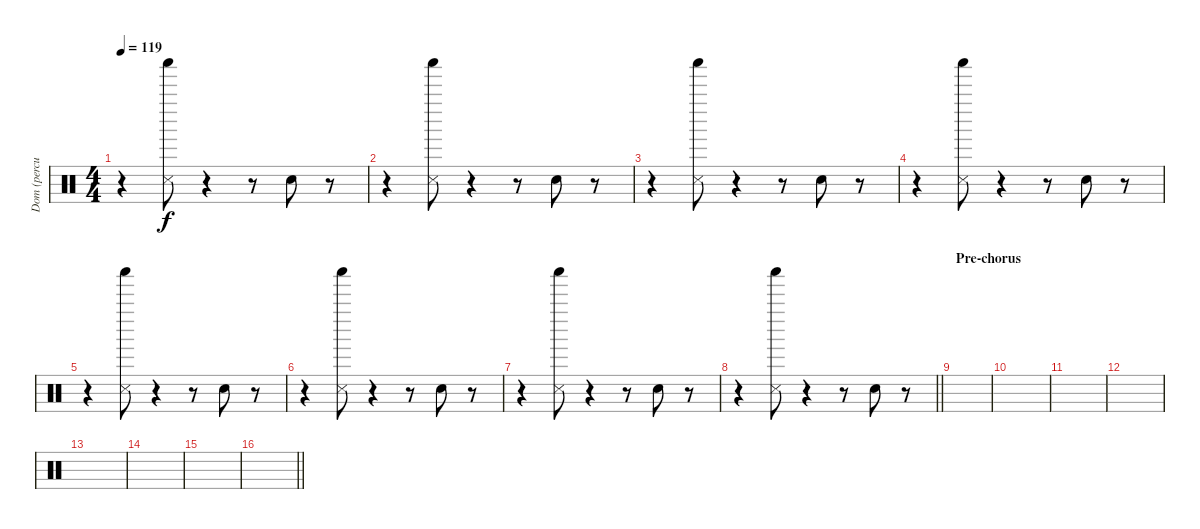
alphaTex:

\track ("Dom (percussions)" "Dom (percu") {instrument percussion}
\staff {score}
\articulation defaults
\ts (4 4)
\tempo 119
\clef neutral
\ks c
r.4{dy f} ("Shaker (hit)" "Metronome (hit)").8 r.4 r.8 "Hand Clap (hit)".8 r.8 |
r.4 ("Shaker (hit)" "Metronome (hit)").8 r.4 r.8 "Hand Clap (hit)".8 r.8 |
r.4 ("Shaker (hit)" "Metronome (hit)").8 r.4 r.8 "Hand Clap (hit)".8 r.8 |
r.4 ("Shaker (hit)" "Metronome (hit)").8 r.4 r.8 "Hand Clap (hit)".8 r.8 |
r.4 ("Shaker (hit)" "Metronome (hit)").8 r.4 r.8 "Hand Clap (hit)".8 r.8 |
r.4 ("Shaker (hit)" "Metronome (hit)").8 r.4 r.8 "Hand Clap (hit)".8 r.8 |
r.4 ("Shaker (hit)" "Metronome (hit)").8 r.4 r.8 "Hand Clap (hit)".8 r.8 |
\barLineRight lightlight
r.4 ("Shaker (hit)" "Metronome (hit)").8 r.4 r.8 "Hand Clap (hit)".8 r.8 |
\section ("" "Pre-chorus")
|
|
|
|
|
|
|
\barLineRight lightlight
